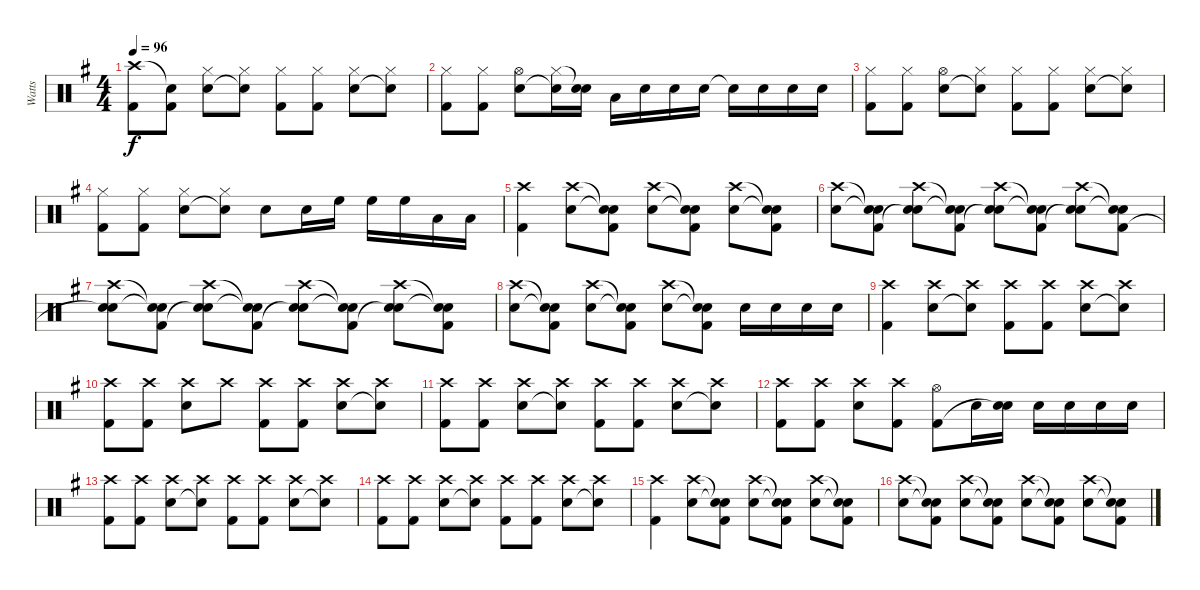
\track ("Watts" "Watts") {instrument percussion}
\staff {score}
\articulation defaults
\ts (4 4)
\tempo 96
\clef neutral
\ks g
("Crash high (hit)" "Kick (hit) 2").8{dy f} ("Snare (hit)"{t} "Kick (hit) 2").8 ("Hi-Hat (closed)" "Snare (hit) 2").8 ("Hi-Hat (closed)" "Snare (hit)"{t}).8 ("Hi-Hat (closed)" "Kick (hit) 2").8 ("Hi-Hat (closed)" "Kick (hit) 2").8 ("Hi-Hat (closed)" "Snare (hit) 2").8 ("Hi-Hat (closed)" "Snare (hit)"{t}).8 |
("Hi-Hat (closed)" "Kick (hit) 2").8 ("Hi-Hat (closed)" "Kick (hit) 2").8 ("Hi-Hat (open)" "Snare (hit) 2").8 ("Hi-Hat (closed)" "Snare (hit)"{t}).16 ("Snare (hit)"{t} "Snare (hit) 2").16 "Low Tom (hit)".16 "Snare (hit) 2".16 "Snare (hit) 2".16 "Snare (hit) 2".16 "Snare (hit)"{t}.16 "Snare (hit) 2".16 "Snare (hit) 2".16 "Snare (hit) 2".16 |
("Hi-Hat (closed)" "Kick (hit) 2").8 ("Hi-Hat (closed)" "Kick (hit) 2").8 ("Hi-Hat (open)" "Snare (hit) 2").8 ("Hi-Hat (closed)" "Snare (hit)"{t}).8 ("Hi-Hat (closed)" "Kick (hit) 2").8 ("Hi-Hat (closed)" "Kick (hit) 2").8 ("Hi-Hat (closed)" "Snare (hit) 2").8 ("Hi-Hat (closed)" "Snare (hit)"{t}).8 |
("Hi-Hat (closed)" "Kick (hit) 2").8 ("Hi-Hat (closed)" "Kick (hit) 2").8 ("Hi-Hat (closed)" "Snare (hit) 2").8 ("Hi-Hat (closed)" "Snare (hit)"{t}).8 "Snare (hit) 2".8 "Snare (hit) 2".16 "High Floor Tom (hit)".16 "High Floor Tom (hit)".16 "High Floor Tom (hit)".16 "Low Tom (hit)".16 "Low Tom (hit)".16 |
("Crash high (hit)" "Kick (hit) 2").4 ("Crash high (hit)" "Snare (hit) 2").8 ("Snare (hit)"{t} "Snare (hit)"{t} "Kick (hit) 2").8 ("Crash high (hit)" "Snare (hit) 2").8 ("Snare (hit)"{t} "Snare (hit)"{t} "Kick (hit) 2").8 ("Crash high (hit)" "Snare (hit) 2").8 ("Snare (hit)"{t} "Snare (hit)"{t} "Kick (hit) 2").8 |
("Crash high (hit)" "Snare (hit) 2").8 ("Snare (hit)"{t} "Snare (hit)"{t} "Kick (hit) 2").8 ("Crash high (hit)" "Snare (hit) 2" "Snare (hit)"{t}).8 ("Snare (hit)"{t} "Snare (hit)"{t} "Kick (hit) 2").8 ("Crash high (hit)" "Snare (hit) 2" "Snare (hit)"{t}).8 ("Snare (hit)"{t} "Snare (hit)"{t} "Kick (hit) 2").8 ("Crash high (hit)" "Snare (hit) 2" "Snare (hit)"{t}).8 ("Snare (hit)"{t} "Snare (hit)"{t} "Kick (hit) 2").8 |
("Crash high (hit)" "Snare (hit) 2" "Snare (hit)"{t}).8 ("Snare (hit)"{t} "Snare (hit)"{t} "Kick (hit) 2").8 ("Crash high (hit)" "Snare (hit) 2" "Snare (hit)"{t}).8 ("Snare (hit)"{t} "Snare (hit)"{t} "Kick (hit) 2").8 ("Crash high (hit)" "Snare (hit) 2" "Snare (hit)"{t}).8 ("Snare (hit)"{t} "Snare (hit)"{t} "Kick (hit) 2").8 ("Crash high (hit)" "Snare (hit) 2" "Snare (hit)"{t}).8 ("Snare (hit)"{t} "Snare (hit)"{t} "Kick (hit) 2").8 |
("Crash high (hit)" "Snare (hit) 2").8 ("Snare (hit)"{t} "Snare (hit)"{t} "Kick (hit) 2").8 ("Crash high (hit)" "Snare (hit) 2").8 ("Snare (hit)"{t} "Snare (hit)"{t} "Kick (hit) 2").8 ("Crash high (hit)" "Snare (hit) 2").8 ("Snare (hit)"{t} "Snare (hit)"{t} "Kick (hit) 2").8 "Snare (hit) 2".16 "Snare (hit) 2".16 "Snare (hit) 2".16 "Snare (hit) 2".16 |
("Crash high (hit)" "Kick (hit) 2").4 ("Crash high (hit)" "Snare (hit) 2").8 ("Crash high (hit)" "Snare (hit)"{t}).8 ("Crash high (hit)" "Kick (hit) 2").8 ("Crash high (hit)" "Kick (hit) 2").8 ("Crash high (hit)" "Snare (hit) 2").8 ("Crash high (hit)" "Snare (hit)"{t}).8 |
("Crash high (hit)" "Kick (hit) 2").8 ("Crash high (hit)" "Kick (hit) 2").8 ("Crash high (hit)" "Snare (hit) 2").8 "Crash high (hit)".8 ("Crash high (hit)" "Kick (hit) 2").8 ("Crash high (hit)" "Kick (hit) 2").8 ("Crash high (hit)" "Snare (hit) 2").8 ("Crash high (hit)" "Snare (hit)"{t}).8 |
("Crash high (hit)" "Kick (hit) 2").8 ("Crash high (hit)" "Kick (hit) 2").8 ("Crash high (hit)" "Snare (hit) 2").8 ("Crash high (hit)" "Snare (hit)"{t}).8 ("Crash high (hit)" "Kick (hit) 2").8 ("Crash high (hit)" "Kick (hit) 2").8 ("Crash high (hit)" "Snare (hit) 2").8 ("Crash high (hit)" "Snare (hit)"{t}).8 |
("Crash high (hit)" "Kick (hit) 2").8 ("Crash high (hit)" "Kick (hit) 2").8 ("Crash high (hit)" "Snare (hit) 2").8 ("Crash high (hit)" "Kick (hit) 2").8 ("Hi-Hat (open)" "Kick (hit) 2").8 "Snare (hit) 2".16 ("Snare (hit) 2" "Snare (hit)"{t}).16 "Snare (hit) 2".16 "Snare (hit) 2".16 "Snare (hit) 2".16 "Snare (hit) 2".16 |
("Crash high (hit)" "Kick (hit) 2").8 ("Crash high (hit)" "Kick (hit) 2").8 ("Crash high (hit)" "Snare (hit) 2").8 ("Crash high (hit)" "Snare (hit)"{t}).8 ("Crash high (hit)" "Kick (hit) 2").8 ("Crash high (hit)" "Kick (hit) 2").8 ("Crash high (hit)" "Snare (hit) 2").8 ("Crash high (hit)" "Snare (hit)"{t}).8 |
("Crash high (hit)" "Kick (hit) 2").8 ("Crash high (hit)" "Kick (hit) 2").8 ("Crash high (hit)" "Snare (hit) 2").8 ("Crash high (hit)" "Snare (hit)"{t}).8 ("Crash high (hit)" "Kick (hit) 2").8 ("Crash high (hit)" "Kick (hit) 2").8 ("Crash high (hit)" "Snare (hit) 2").8 ("Crash high (hit)" "Snare (hit)"{t}).8 |
("Crash high (hit)" "Kick (hit) 2").4 ("Crash high (hit)" "Snare (hit) 2").8 ("Snare (hit)"{t} "Snare (hit)"{t} "Kick (hit) 2").8 ("Crash high (hit)" "Snare (hit) 2").8 ("Snare (hit)"{t} "Snare (hit)"{t} "Kick (hit) 2").8 ("Crash high (hit)" "Snare (hit) 2").8 ("Snare (hit)"{t} "Snare (hit)"{t} "Kick (hit) 2").8 |
("Crash high (hit)" "Snare (hit) 2").8 ("Snare (hit)"{t} "Snare (hit)"{t} "Kick (hit) 2").8 ("Crash high (hit)" "Snare (hit) 2").8 ("Snare (hit)"{t} "Snare (hit)"{t} "Kick (hit) 2").8 ("Crash high (hit)" "Snare (hit) 2").8 ("Snare (hit)"{t} "Snare (hit)"{t} "Kick (hit) 2").8 ("Crash high (hit)" "Snare (hit) 2").8 ("Snare (hit)"{t} "Snare (hit)"{t} "Kick (hit) 2").8
